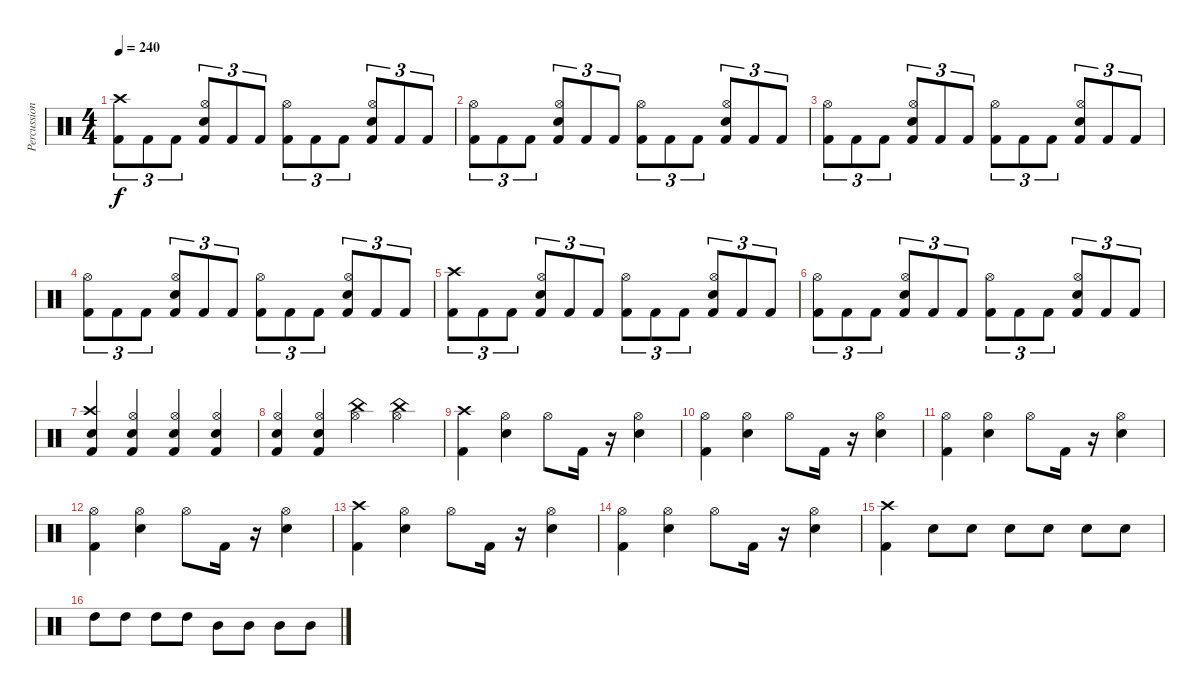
\track ("Percussion" "Percussion") {instrument percussion}
\staff {score}
\articulation defaults
\ts (4 4)
\tempo 240
\clef neutral
\ks c
("Kick (hit) 2" "Crash high (hit)").8{tu (3 2) dy f} "Kick (hit) 2".8{tu (3 2)} "Kick (hit) 2".8{tu (3 2)} ("Kick (hit) 2" "Hi-Hat (open)" "Electric Snare (hit)").8{tu (3 2)} "Kick (hit) 2".8{tu (3 2)} "Kick (hit) 2".8{tu (3 2)} ("Kick (hit) 2" "Hi-Hat (open)").8{tu (3 2)} "Kick (hit) 2".8{tu (3 2)} "Kick (hit) 2".8{tu (3 2)} ("Kick (hit) 2" "Hi-Hat (open)" "Electric Snare (hit)").8{tu (3 2)} "Kick (hit) 2".8{tu (3 2)} "Kick (hit) 2".8{tu (3 2)} |
("Kick (hit) 2" "Hi-Hat (open)").8{tu (3 2)} "Kick (hit) 2".8{tu (3 2)} "Kick (hit) 2".8{tu (3 2)} ("Kick (hit) 2" "Hi-Hat (open)" "Electric Snare (hit)").8{tu (3 2)} "Kick (hit) 2".8{tu (3 2)} "Kick (hit) 2".8{tu (3 2)} ("Kick (hit) 2" "Hi-Hat (open)").8{tu (3 2)} "Kick (hit) 2".8{tu (3 2)} "Kick (hit) 2".8{tu (3 2)} ("Kick (hit) 2" "Hi-Hat (open)" "Electric Snare (hit)").8{tu (3 2)} "Kick (hit) 2".8{tu (3 2)} "Kick (hit) 2".8{tu (3 2)} |
("Kick (hit) 2" "Hi-Hat (open)").8{tu (3 2)} "Kick (hit) 2".8{tu (3 2)} "Kick (hit) 2".8{tu (3 2)} ("Kick (hit) 2" "Hi-Hat (open)" "Electric Snare (hit)").8{tu (3 2)} "Kick (hit) 2".8{tu (3 2)} "Kick (hit) 2".8{tu (3 2)} ("Kick (hit) 2" "Hi-Hat (open)").8{tu (3 2)} "Kick (hit) 2".8{tu (3 2)} "Kick (hit) 2".8{tu (3 2)} ("Kick (hit) 2" "Hi-Hat (open)" "Electric Snare (hit)").8{tu (3 2)} "Kick (hit) 2".8{tu (3 2)} "Kick (hit) 2".8{tu (3 2)} |
("Kick (hit) 2" "Hi-Hat (open)").8{tu (3 2)} "Kick (hit) 2".8{tu (3 2)} "Kick (hit) 2".8{tu (3 2)} ("Kick (hit) 2" "Hi-Hat (open)" "Electric Snare (hit)").8{tu (3 2)} "Kick (hit) 2".8{tu (3 2)} "Kick (hit) 2".8{tu (3 2)} ("Kick (hit) 2" "Hi-Hat (open)").8{tu (3 2)} "Kick (hit) 2".8{tu (3 2)} "Kick (hit) 2".8{tu (3 2)} ("Kick (hit) 2" "Hi-Hat (open)" "Electric Snare (hit)").8{tu (3 2)} "Kick (hit) 2".8{tu (3 2)} "Kick (hit) 2".8{tu (3 2)} |
("Kick (hit) 2" "Crash high (hit)").8{tu (3 2)} "Kick (hit) 2".8{tu (3 2)} "Kick (hit) 2".8{tu (3 2)} ("Kick (hit) 2" "Hi-Hat (open)" "Electric Snare (hit)").8{tu (3 2)} "Kick (hit) 2".8{tu (3 2)} "Kick (hit) 2".8{tu (3 2)} ("Kick (hit) 2" "Hi-Hat (open)").8{tu (3 2)} "Kick (hit) 2".8{tu (3 2)} "Kick (hit) 2".8{tu (3 2)} ("Kick (hit) 2" "Hi-Hat (open)" "Electric Snare (hit)").8{tu (3 2)} "Kick (hit) 2".8{tu (3 2)} "Kick (hit) 2".8{tu (3 2)} |
("Kick (hit) 2" "Hi-Hat (open)").8{tu (3 2)} "Kick (hit) 2".8{tu (3 2)} "Kick (hit) 2".8{tu (3 2)} ("Kick (hit) 2" "Hi-Hat (open)" "Electric Snare (hit)").8{tu (3 2)} "Kick (hit) 2".8{tu (3 2)} "Kick (hit) 2".8{tu (3 2)} ("Kick (hit) 2" "Hi-Hat (open)").8{tu (3 2)} "Kick (hit) 2".8{tu (3 2)} "Kick (hit) 2".8{tu (3 2)} ("Kick (hit) 2" "Hi-Hat (open)" "Electric Snare (hit)").8{tu (3 2)} "Kick (hit) 2".8{tu (3 2)} "Kick (hit) 2".8{tu (3 2)} |
("Kick (hit) 2" "Electric Snare (hit)" "Crash high (hit)").4 ("Kick (hit) 2" "Electric Snare (hit)" "Hi-Hat (open)").4 ("Kick (hit) 2" "Electric Snare (hit)" "Hi-Hat (open)").4 ("Kick (hit) 2" "Electric Snare (hit)" "Hi-Hat (open)").4 |
("Kick (hit) 2" "Electric Snare (hit)" "Hi-Hat (open)").4 ("Kick (hit) 2" "Electric Snare (hit)" "Hi-Hat (open)").4 ("Hi-Hat (open)" "China (hit)").4 ("Hi-Hat (open)" "China (hit)").4 |
("Kick (hit) 2" "Crash high (hit)").4 ("Electric Snare (hit)" "Hi-Hat (open)").4 "Hi-Hat (open)".8 "Kick (hit) 2".16 r.16 ("Electric Snare (hit)" "Hi-Hat (open)").4 |
("Kick (hit) 2" "Hi-Hat (open)").4 ("Electric Snare (hit)" "Hi-Hat (open)").4 "Hi-Hat (open)".8 "Kick (hit) 2".16 r.16 ("Electric Snare (hit)" "Hi-Hat (open)").4 |
("Kick (hit) 2" "Hi-Hat (open)").4 ("Electric Snare (hit)" "Hi-Hat (open)").4 "Hi-Hat (open)".8 "Kick (hit) 2".16 r.16 ("Electric Snare (hit)" "Hi-Hat (open)").4 |
("Kick (hit) 2" "Hi-Hat (open)").4 ("Electric Snare (hit)" "Hi-Hat (open)").4 "Hi-Hat (open)".8 "Kick (hit) 2".16 r.16 ("Electric Snare (hit)" "Hi-Hat (open)").4 |
("Kick (hit) 2" "Crash high (hit)").4 ("Electric Snare (hit)" "Hi-Hat (open)").4 "Hi-Hat (open)".8 "Kick (hit) 2".16 r.16 ("Electric Snare (hit)" "Hi-Hat (open)").4 |
("Kick (hit) 2" "Hi-Hat (open)").4 ("Electric Snare (hit)" "Hi-Hat (open)").4 "Hi-Hat (open)".8 "Kick (hit) 2".16 r.16 ("Electric Snare (hit)" "Hi-Hat (open)").4 |
("Kick (hit) 2" "Crash high (hit)").4 "Electric Snare (hit)".8 "Electric Snare (hit)".8 "Electric Snare (hit)".8 "Electric Snare (hit)".8 "Electric Snare (hit)".8 "Electric Snare (hit)".8 |
"High Tom (hit)".8 "High Tom (hit)".8 "High Tom (hit)".8 "High Tom (hit)".8 "Mid Tom (hit)".8 "Mid Tom (hit)".8 "Mid Tom (hit)".8 "Mid Tom (hit)".8
